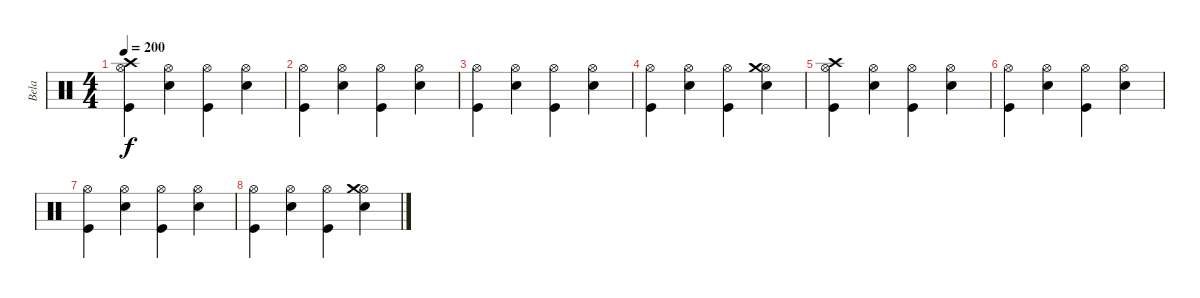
\track ("Bela" "Bela") {instrument percussion}
\staff {score}
\articulation defaults
\ts (4 4)
\tempo 200
\clef neutral
\ks c
("Hi-Hat (open)" "Crash high (hit)" "Kick (hit)").4{dy f} ("Hi-Hat (open)" "Electric Snare (hit)").4 ("Hi-Hat (open)" "Kick (hit)").4 ("Hi-Hat (open)" "Electric Snare (hit)").4 |
("Hi-Hat (open)" "Kick (hit)").4 ("Hi-Hat (open)" "Electric Snare (hit)").4 ("Hi-Hat (open)" "Kick (hit)").4 ("Hi-Hat (open)" "Electric Snare (hit)").4 |
("Hi-Hat (open)" "Kick (hit)").4 ("Hi-Hat (open)" "Electric Snare (hit)").4 ("Hi-Hat (open)" "Kick (hit)").4 ("Hi-Hat (open)" "Electric Snare (hit)").4 |
("Hi-Hat (open)" "Kick (hit)").4 ("Hi-Hat (open)" "Electric Snare (hit)").4 ("Hi-Hat (open)" "Kick (hit)").4 ("Hi-Hat (open)" "Crash medium (hit)" "Electric Snare (hit)").4 |
("Hi-Hat (open)" "Crash high (hit)" "Kick (hit)").4 ("Hi-Hat (open)" "Electric Snare (hit)").4 ("Hi-Hat (open)" "Kick (hit)").4 ("Hi-Hat (open)" "Electric Snare (hit)").4 |
("Hi-Hat (open)" "Kick (hit)").4 ("Hi-Hat (open)" "Electric Snare (hit)").4 ("Hi-Hat (open)" "Kick (hit)").4 ("Hi-Hat (open)" "Electric Snare (hit)").4 |
("Hi-Hat (open)" "Kick (hit)").4 ("Hi-Hat (open)" "Electric Snare (hit)").4 ("Hi-Hat (open)" "Kick (hit)").4 ("Hi-Hat (open)" "Electric Snare (hit)").4 |
("Hi-Hat (open)" "Kick (hit)").4 ("Hi-Hat (open)" "Electric Snare (hit)").4 ("Hi-Hat (open)" "Kick (hit)").4 ("Hi-Hat (open)" "Crash medium (hit)" "Electric Snare (hit)").4
